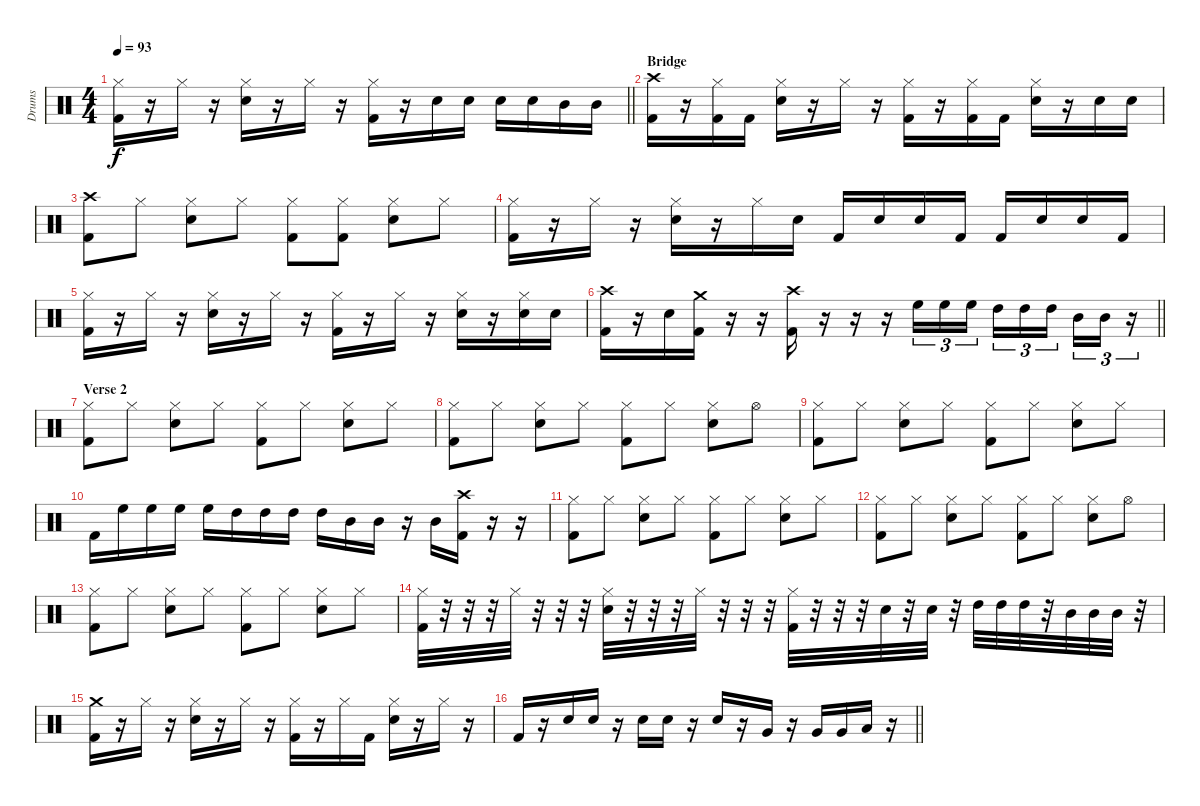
\track ("Drums" "Drums") {instrument percussion}
\staff {score}
\articulation defaults
\ts (4 4)
\tempo 93
\clef neutral
\barLineRight lightlight
\ks c
("Hi-Hat (closed)" "Kick (hit) 2").16{dy f} r.16 "Hi-Hat (closed)".16 r.16 ("Hi-Hat (closed)" "Snare (hit) 2").16 r.16 "Hi-Hat (closed)".16 r.16 ("Hi-Hat (closed)" "Kick (hit) 2").16 r.16 "Snare (hit) 2".16 "Snare (hit) 2".16 "Snare (hit) 2".16 "Snare (hit) 2".16 "Mid Tom (hit)".16 "Mid Tom (hit)".16 |
\section ("" "Bridge")
("Crash high (hit)" "Kick (hit) 2").16 r.16 ("Hi-Hat (closed)" "Kick (hit) 2").16 "Kick (hit) 2".16 ("Hi-Hat (closed)" "Snare (hit) 2").16 r.16 "Hi-Hat (closed)".16 r.16 ("Hi-Hat (closed)" "Kick (hit) 2").16 r.16 ("Hi-Hat (closed)" "Kick (hit) 2").16 "Kick (hit) 2".16 ("Hi-Hat (closed)" "Snare (hit) 2").16 r.16 "Snare (hit) 2".16 "Snare (hit) 2".16 |
("Crash high (hit)" "Kick (hit) 2").8 "Hi-Hat (closed)".8 ("Hi-Hat (closed)" "Snare (hit) 2").8 "Hi-Hat (closed)".8 ("Hi-Hat (closed)" "Kick (hit) 2").8 ("Hi-Hat (closed)" "Kick (hit) 2").8 ("Hi-Hat (closed)" "Snare (hit) 2").8 "Hi-Hat (closed)".8 |
("Hi-Hat (closed)" "Kick (hit) 2").16 r.16 "Hi-Hat (closed)".16 r.16 ("Hi-Hat (closed)" "Snare (hit) 2").16 r.16 "Hi-Hat (closed)".16 "Snare (hit) 2".16 "Kick (hit) 2".16 "Snare (hit) 2".16 "Snare (hit) 2".16 "Kick (hit) 2".16 "Kick (hit) 2".16 "Snare (hit) 2".16 "Snare (hit) 2".16 "Kick (hit) 2".16 |
("Hi-Hat (closed)" "Kick (hit) 2").16 r.16 "Hi-Hat (closed)".16 r.16 ("Hi-Hat (closed)" "Snare (hit) 2").16 r.16 "Hi-Hat (closed)".16 r.16 ("Hi-Hat (closed)" "Kick (hit) 2").16 r.16 "Hi-Hat (closed)".16 r.16 ("Hi-Hat (closed)" "Snare (hit) 2").16 r.16 ("Hi-Hat (closed)" "Snare (hit) 2").16 "Snare (hit) 2".16 |
\barLineRight lightlight
("Crash high (hit)" "Kick (hit) 2").16 r.16 "Snare (hit) 2".16 ("Crash medium (hit)" "Kick (hit) 2").16 r.16 r.16 ("Crash high (hit)" "Kick (hit) 2").16 r.16 r.16 r.16 "High Floor Tom (hit)".16{tu (3 2)} "High Floor Tom (hit)".16{tu (3 2)} "High Floor Tom (hit)".16{tu (3 2)} "High Tom (hit)".16{tu (3 2)} "High Tom (hit)".16{tu (3 2)} "High Tom (hit)".16{tu (3 2) beam splitsecondary} "Mid Tom (hit)".16{tu (3 2)} "Mid Tom (hit)".16{tu (3 2)} r.16{tu (3 2)} |
\section ("" "Verse 2")
("Hi-Hat (closed)" "Kick (hit) 2").8 "Hi-Hat (closed)".8 ("Hi-Hat (closed)" "Snare (hit) 2").8 "Hi-Hat (closed)".8 ("Hi-Hat (closed)" "Kick (hit) 2").8 "Hi-Hat (closed)".8 ("Hi-Hat (closed)" "Snare (hit) 2").8 "Hi-Hat (closed)".8 |
("Hi-Hat (closed)" "Kick (hit) 2").8 "Hi-Hat (closed)".8 ("Hi-Hat (closed)" "Snare (hit) 2").8 "Hi-Hat (closed)".8 ("Hi-Hat (closed)" "Kick (hit) 2").8 "Hi-Hat (closed)".8 ("Hi-Hat (closed)" "Snare (hit) 2").8 "Hi-Hat (open)".8 |
("Hi-Hat (closed)" "Kick (hit) 2").8 "Hi-Hat (closed)".8 ("Hi-Hat (closed)" "Snare (hit) 2").8 "Hi-Hat (closed)".8 ("Hi-Hat (closed)" "Kick (hit) 2").8 "Hi-Hat (closed)".8 ("Hi-Hat (closed)" "Snare (hit) 2").8 "Hi-Hat (closed)".8 |
"Kick (hit) 2".16 "High Floor Tom (hit)".16 "High Floor Tom (hit)".16 "High Floor Tom (hit)".16 "High Floor Tom (hit)".16 "High Tom (hit)".16 "High Tom (hit)".16 "High Tom (hit)".16 "High Tom (hit)".16 "Mid Tom (hit)".16 "Mid Tom (hit)".16 r.16 "Mid Tom (hit)".16 ("Crash high (hit)" "Kick (hit) 2").16 r.16 r.16 |
("Hi-Hat (closed)" "Kick (hit) 2").8 "Hi-Hat (closed)".8 ("Hi-Hat (closed)" "Snare (hit) 2").8 "Hi-Hat (closed)".8 ("Hi-Hat (closed)" "Kick (hit) 2").8 "Hi-Hat (closed)".8 ("Hi-Hat (closed)" "Snare (hit) 2").8 "Hi-Hat (closed)".8 |
("Hi-Hat (closed)" "Kick (hit) 2").8 "Hi-Hat (closed)".8 ("Hi-Hat (closed)" "Snare (hit) 2").8 "Hi-Hat (closed)".8 ("Hi-Hat (closed)" "Kick (hit) 2").8 "Hi-Hat (closed)".8 ("Hi-Hat (closed)" "Snare (hit) 2").8 "Hi-Hat (open)".8 |
("Hi-Hat (closed)" "Kick (hit) 2").8 "Hi-Hat (closed)".8 ("Hi-Hat (closed)" "Snare (hit) 2").8 "Hi-Hat (closed)".8 ("Hi-Hat (closed)" "Kick (hit) 2").8 "Hi-Hat (closed)".8 ("Hi-Hat (closed)" "Snare (hit) 2").8 "Hi-Hat (closed)".8 |
("Hi-Hat (closed)" "Kick (hit) 2").32 r.32 r.32 r.32 "Hi-Hat (closed)".32 r.32 r.32 r.32 ("Hi-Hat (closed)" "Snare (hit) 2").32 r.32 r.32 r.32 "Hi-Hat (closed)".32 r.32 r.32 r.32 ("Hi-Hat (closed)" "Kick (hit) 2").32 r.32 r.32 r.32 "Snare (hit) 2".32 r.32 "Snare (hit) 2".32 r.32 "High Tom (hit)".32 "High Tom (hit)".32 "High Tom (hit)".32 r.32 "Mid Tom (hit)".32 "Mid Tom (hit)".32 "Mid Tom (hit)".32 r.32 |
("Crash medium (hit)" "Kick (hit) 2").16 r.16 "Hi-Hat (closed)".16 r.16 ("Hi-Hat (closed)" "Snare (hit) 2").16 r.16 "Hi-Hat (closed)".16 r.16 ("Hi-Hat (closed)" "Kick (hit) 2").16 r.16 "Hi-Hat (closed)".16 "Kick (hit) 2".16 ("Hi-Hat (closed)" "Snare (hit) 2").16 r.16 "Hi-Hat (closed)".16 r.16 |
\barLineRight lightlight "Kick (hit) 2".16
r.16 "Snare (hit) 2".16 "Snare (hit) 2".16 r.16 "Snare (hit) 2".16 "Snare (hit) 2".16 r.16 "Snare (hit) 2".16 r.16 "Very Low Tom (hit)".16 r.16 "Very Low Tom (hit)".16 "Very Low Tom (hit)".16 "Low Floor Tom (hit)".16 r.16
